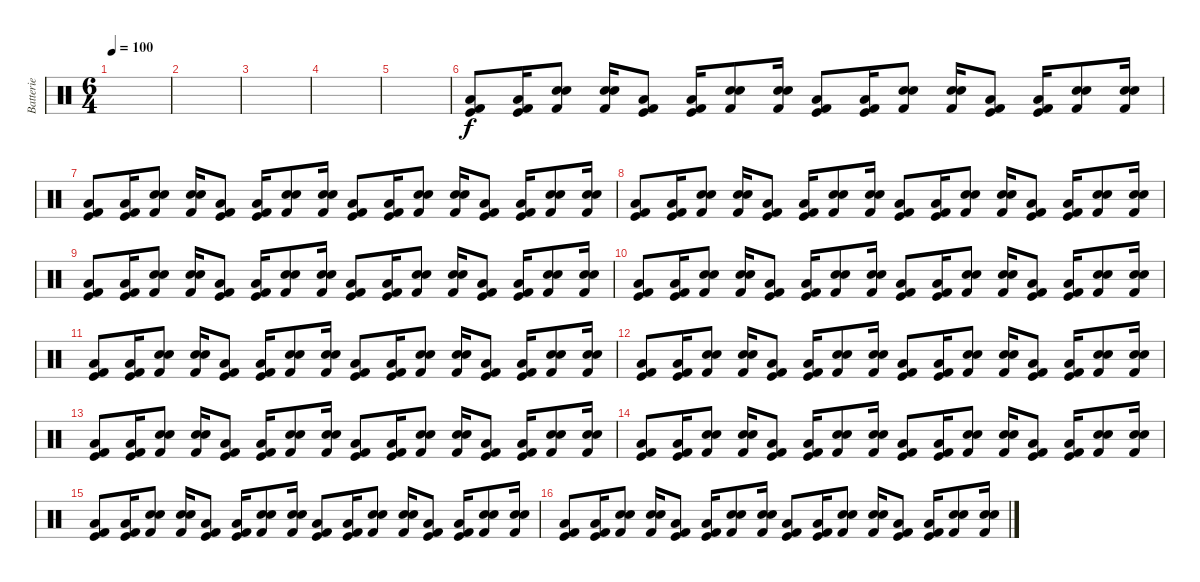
\track ("Batterie" "Batterie") {instrument percussion}
\staff {score}
\articulation defaults
\ts (6 4)
\tempo 100
\clef neutral
\ks c
|
|
|
|
|
("Kick (hit)" "Low Tom (hit)" "Kick (hit) 2").8 ("Kick (hit)" "Low Tom (hit)" "Kick (hit) 2").16 ("Snare (hit) 2" "Kick (hit) 2" "Snare (hit) 2").8 ("Snare (hit) 2" "Kick (hit) 2" "Snare (hit) 2").16 ("Kick (hit)" "Low Tom (hit)" "Kick (hit) 2").8 ("Kick (hit)" "Low Tom (hit)" "Kick (hit) 2").16 ("Snare (hit) 2" "Kick (hit) 2" "Snare (hit) 2").8 ("Snare (hit) 2" "Kick (hit) 2" "Snare (hit) 2").16 ("Kick (hit)" "Low Tom (hit)" "Kick (hit) 2").8 ("Kick (hit)" "Low Tom (hit)" "Kick (hit) 2").16 ("Snare (hit) 2" "Kick (hit) 2" "Snare (hit) 2").8 ("Snare (hit) 2" "Kick (hit) 2" "Snare (hit) 2").16 ("Kick (hit)" "Low Tom (hit)" "Kick (hit) 2").8 ("Kick (hit)" "Low Tom (hit)" "Kick (hit) 2").16 ("Snare (hit) 2" "Kick (hit) 2" "Snare (hit) 2").8 ("Snare (hit) 2" "Kick (hit) 2" "Snare (hit) 2").16 |
("Kick (hit)" "Low Tom (hit)" "Kick (hit) 2").8 ("Kick (hit)" "Low Tom (hit)" "Kick (hit) 2").16 ("Snare (hit) 2" "Kick (hit) 2" "Snare (hit) 2").8 ("Snare (hit) 2" "Kick (hit) 2" "Snare (hit) 2").16 ("Kick (hit)" "Low Tom (hit)" "Kick (hit) 2").8 ("Kick (hit)" "Low Tom (hit)" "Kick (hit) 2").16 ("Snare (hit) 2" "Kick (hit) 2" "Snare (hit) 2").8 ("Snare (hit) 2" "Kick (hit) 2" "Snare (hit) 2").16 ("Kick (hit)" "Low Tom (hit)" "Kick (hit) 2").8 ("Kick (hit)" "Low Tom (hit)" "Kick (hit) 2").16 ("Snare (hit) 2" "Kick (hit) 2" "Snare (hit) 2").8 ("Snare (hit) 2" "Kick (hit) 2" "Snare (hit) 2").16 ("Kick (hit)" "Low Tom (hit)" "Kick (hit) 2").8 ("Kick (hit)" "Low Tom (hit)" "Kick (hit) 2").16 ("Snare (hit) 2" "Kick (hit) 2" "Snare (hit) 2").8 ("Snare (hit) 2" "Kick (hit) 2" "Snare (hit) 2").16 |
("Kick (hit)" "Low Tom (hit)" "Kick (hit) 2").8 ("Kick (hit)" "Low Tom (hit)" "Kick (hit) 2").16 ("Snare (hit) 2" "Kick (hit) 2" "Snare (hit) 2").8 ("Snare (hit) 2" "Kick (hit) 2" "Snare (hit) 2").16 ("Kick (hit)" "Low Tom (hit)" "Kick (hit) 2").8 ("Kick (hit)" "Low Tom (hit)" "Kick (hit) 2").16 ("Snare (hit) 2" "Kick (hit) 2" "Snare (hit) 2").8 ("Snare (hit) 2" "Kick (hit) 2" "Snare (hit) 2").16 ("Kick (hit)" "Low Tom (hit)" "Kick (hit) 2").8 ("Kick (hit)" "Low Tom (hit)" "Kick (hit) 2").16 ("Snare (hit) 2" "Kick (hit) 2" "Snare (hit) 2").8 ("Snare (hit) 2" "Kick (hit) 2" "Snare (hit) 2").16 ("Kick (hit)" "Low Tom (hit)" "Kick (hit) 2").8 ("Kick (hit)" "Low Tom (hit)" "Kick (hit) 2").16 ("Snare (hit) 2" "Kick (hit) 2" "Snare (hit) 2").8 ("Snare (hit) 2" "Kick (hit) 2" "Snare (hit) 2").16 |
("Kick (hit)" "Low Tom (hit)" "Kick (hit) 2").8 ("Kick (hit)" "Low Tom (hit)" "Kick (hit) 2").16 ("Snare (hit) 2" "Kick (hit) 2" "Snare (hit) 2").8 ("Snare (hit) 2" "Kick (hit) 2" "Snare (hit) 2").16 ("Kick (hit)" "Low Tom (hit)" "Kick (hit) 2").8 ("Kick (hit)" "Low Tom (hit)" "Kick (hit) 2").16 ("Snare (hit) 2" "Kick (hit) 2" "Snare (hit) 2").8 ("Snare (hit) 2" "Kick (hit) 2" "Snare (hit) 2").16 ("Kick (hit)" "Low Tom (hit)" "Kick (hit) 2").8 ("Kick (hit)" "Low Tom (hit)" "Kick (hit) 2").16 ("Snare (hit) 2" "Kick (hit) 2" "Snare (hit) 2").8 ("Snare (hit) 2" "Kick (hit) 2" "Snare (hit) 2").16 ("Kick (hit)" "Low Tom (hit)" "Kick (hit) 2").8 ("Kick (hit)" "Low Tom (hit)" "Kick (hit) 2").16 ("Snare (hit) 2" "Kick (hit) 2" "Snare (hit) 2").8 ("Snare (hit) 2" "Kick (hit) 2" "Snare (hit) 2").16 |
("Kick (hit)" "Low Tom (hit)" "Kick (hit) 2").8 ("Kick (hit)" "Low Tom (hit)" "Kick (hit) 2").16 ("Snare (hit) 2" "Kick (hit) 2" "Snare (hit) 2").8 ("Snare (hit) 2" "Kick (hit) 2" "Snare (hit) 2").16 ("Kick (hit)" "Low Tom (hit)" "Kick (hit) 2").8 ("Kick (hit)" "Low Tom (hit)" "Kick (hit) 2").16 ("Snare (hit) 2" "Kick (hit) 2" "Snare (hit) 2").8 ("Snare (hit) 2" "Kick (hit) 2" "Snare (hit) 2").16 ("Kick (hit)" "Low Tom (hit)" "Kick (hit) 2").8 ("Kick (hit)" "Low Tom (hit)" "Kick (hit) 2").16 ("Snare (hit) 2" "Kick (hit) 2" "Snare (hit) 2").8 ("Snare (hit) 2" "Kick (hit) 2" "Snare (hit) 2").16 ("Kick (hit)" "Low Tom (hit)" "Kick (hit) 2").8 ("Kick (hit)" "Low Tom (hit)" "Kick (hit) 2").16 ("Snare (hit) 2" "Kick (hit) 2" "Snare (hit) 2").8 ("Snare (hit) 2" "Kick (hit) 2" "Snare (hit) 2").16 |
("Kick (hit)" "Low Tom (hit)" "Kick (hit) 2").8 ("Kick (hit)" "Low Tom (hit)" "Kick (hit) 2").16 ("Snare (hit) 2" "Kick (hit) 2" "Snare (hit) 2").8 ("Snare (hit) 2" "Kick (hit) 2" "Snare (hit) 2").16 ("Kick (hit)" "Low Tom (hit)" "Kick (hit) 2").8 ("Kick (hit)" "Low Tom (hit)" "Kick (hit) 2").16 ("Snare (hit) 2" "Kick (hit) 2" "Snare (hit) 2").8 ("Snare (hit) 2" "Kick (hit) 2" "Snare (hit) 2").16 ("Kick (hit)" "Low Tom (hit)" "Kick (hit) 2").8 ("Kick (hit)" "Low Tom (hit)" "Kick (hit) 2").16 ("Snare (hit) 2" "Kick (hit) 2" "Snare (hit) 2").8 ("Snare (hit) 2" "Kick (hit) 2" "Snare (hit) 2").16 ("Kick (hit)" "Low Tom (hit)" "Kick (hit) 2").8 ("Kick (hit)" "Low Tom (hit)" "Kick (hit) 2").16 ("Snare (hit) 2" "Kick (hit) 2" "Snare (hit) 2").8 ("Snare (hit) 2" "Kick (hit) 2" "Snare (hit) 2").16 |
("Kick (hit)" "Low Tom (hit)" "Kick (hit) 2").8 ("Kick (hit)" "Low Tom (hit)" "Kick (hit) 2").16 ("Snare (hit) 2" "Kick (hit) 2" "Snare (hit) 2").8 ("Snare (hit) 2" "Kick (hit) 2" "Snare (hit) 2").16 ("Kick (hit)" "Low Tom (hit)" "Kick (hit) 2").8 ("Kick (hit)" "Low Tom (hit)" "Kick (hit) 2").16 ("Snare (hit) 2" "Kick (hit) 2" "Snare (hit) 2").8 ("Snare (hit) 2" "Kick (hit) 2" "Snare (hit) 2").16 ("Kick (hit)" "Low Tom (hit)" "Kick (hit) 2").8 ("Kick (hit)" "Low Tom (hit)" "Kick (hit) 2").16 ("Snare (hit) 2" "Kick (hit) 2" "Snare (hit) 2").8 ("Snare (hit) 2" "Kick (hit) 2" "Snare (hit) 2").16 ("Kick (hit)" "Low Tom (hit)" "Kick (hit) 2").8 ("Kick (hit)" "Low Tom (hit)" "Kick (hit) 2").16 ("Snare (hit) 2" "Kick (hit) 2" "Snare (hit) 2").8 ("Snare (hit) 2" "Kick (hit) 2" "Snare (hit) 2").16 |
("Kick (hit)" "Low Tom (hit)" "Kick (hit) 2").8 ("Kick (hit)" "Low Tom (hit)" "Kick (hit) 2").16 ("Snare (hit) 2" "Kick (hit) 2" "Snare (hit) 2").8 ("Snare (hit) 2" "Kick (hit) 2" "Snare (hit) 2").16 ("Kick (hit)" "Low Tom (hit)" "Kick (hit) 2").8 ("Kick (hit)" "Low Tom (hit)" "Kick (hit) 2").16 ("Snare (hit) 2" "Kick (hit) 2" "Snare (hit) 2").8 ("Snare (hit) 2" "Kick (hit) 2" "Snare (hit) 2").16 ("Kick (hit)" "Low Tom (hit)" "Kick (hit) 2").8 ("Kick (hit)" "Low Tom (hit)" "Kick (hit) 2").16 ("Snare (hit) 2" "Kick (hit) 2" "Snare (hit) 2").8 ("Snare (hit) 2" "Kick (hit) 2" "Snare (hit) 2").16 ("Kick (hit)" "Low Tom (hit)" "Kick (hit) 2").8 ("Kick (hit)" "Low Tom (hit)" "Kick (hit) 2").16 ("Snare (hit) 2" "Kick (hit) 2" "Snare (hit) 2").8 ("Snare (hit) 2" "Kick (hit) 2" "Snare (hit) 2").16 |
("Kick (hit)" "Low Tom (hit)" "Kick (hit) 2").8 ("Kick (hit)" "Low Tom (hit)" "Kick (hit) 2").16 ("Snare (hit) 2" "Kick (hit) 2" "Snare (hit) 2").8 ("Snare (hit) 2" "Kick (hit) 2" "Snare (hit) 2").16 ("Kick (hit)" "Low Tom (hit)" "Kick (hit) 2").8 ("Kick (hit)" "Low Tom (hit)" "Kick (hit) 2").16 ("Snare (hit) 2" "Kick (hit) 2" "Snare (hit) 2").8 ("Snare (hit) 2" "Kick (hit) 2" "Snare (hit) 2").16 ("Kick (hit)" "Low Tom (hit)" "Kick (hit) 2").8 ("Kick (hit)" "Low Tom (hit)" "Kick (hit) 2").16 ("Snare (hit) 2" "Kick (hit) 2" "Snare (hit) 2").8 ("Snare (hit) 2" "Kick (hit) 2" "Snare (hit) 2").16 ("Kick (hit)" "Low Tom (hit)" "Kick (hit) 2").8 ("Kick (hit)" "Low Tom (hit)" "Kick (hit) 2").16 ("Snare (hit) 2" "Kick (hit) 2" "Snare (hit) 2").8 ("Snare (hit) 2" "Kick (hit) 2" "Snare (hit) 2").16 |
("Kick (hit)" "Low Tom (hit)" "Kick (hit) 2").8 ("Kick (hit)" "Low Tom (hit)" "Kick (hit) 2").16 ("Snare (hit) 2" "Kick (hit) 2" "Snare (hit) 2").8 ("Snare (hit) 2" "Kick (hit) 2" "Snare (hit) 2").16 ("Kick (hit)" "Low Tom (hit)" "Kick (hit) 2").8 ("Kick (hit)" "Low Tom (hit)" "Kick (hit) 2").16 ("Snare (hit) 2" "Kick (hit) 2" "Snare (hit) 2").8 ("Snare (hit) 2" "Kick (hit) 2" "Snare (hit) 2").16 ("Kick (hit)" "Low Tom (hit)" "Kick (hit) 2").8 ("Kick (hit)" "Low Tom (hit)" "Kick (hit) 2").16 ("Snare (hit) 2" "Kick (hit) 2" "Snare (hit) 2").8 ("Snare (hit) 2" "Kick (hit) 2" "Snare (hit) 2").16 ("Kick (hit)" "Low Tom (hit)" "Kick (hit) 2").8 ("Kick (hit)" "Low Tom (hit)" "Kick (hit) 2").16 ("Snare (hit) 2" "Kick (hit) 2" "Snare (hit) 2").8 ("Snare (hit) 2" "Kick (hit) 2" "Snare (hit) 2").16 |
("Kick (hit)" "Low Tom (hit)" "Kick (hit) 2").8 ("Kick (hit)" "Low Tom (hit)" "Kick (hit) 2").16 ("Snare (hit) 2" "Kick (hit) 2" "Snare (hit) 2").8 ("Snare (hit) 2" "Kick (hit) 2" "Snare (hit) 2").16 ("Kick (hit)" "Low Tom (hit)" "Kick (hit) 2").8 ("Kick (hit)" "Low Tom (hit)" "Kick (hit) 2").16 ("Snare (hit) 2" "Kick (hit) 2" "Snare (hit) 2").8 ("Snare (hit) 2" "Kick (hit) 2" "Snare (hit) 2").16 ("Kick (hit)" "Low Tom (hit)" "Kick (hit) 2").8 ("Kick (hit)" "Low Tom (hit)" "Kick (hit) 2").16 ("Snare (hit) 2" "Kick (hit) 2" "Snare (hit) 2").8 ("Snare (hit) 2" "Kick (hit) 2" "Snare (hit) 2").16 ("Kick (hit)" "Low Tom (hit)" "Kick (hit) 2").8 ("Kick (hit)" "Low Tom (hit)" "Kick (hit) 2").16 ("Snare (hit) 2" "Kick (hit) 2" "Snare (hit) 2").8 ("Snare (hit) 2" "Kick (hit) 2" "Snare (hit) 2").16
